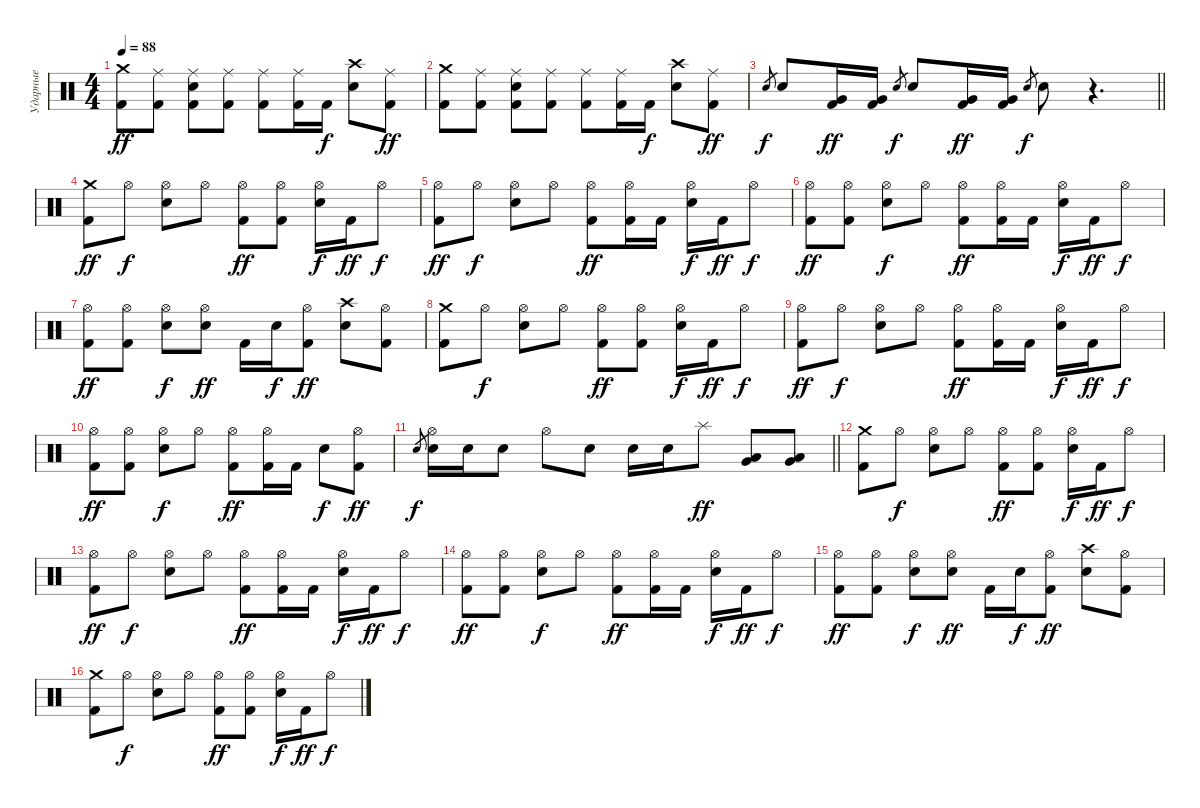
\track ("Ударные" "Ударные") {instrument percussion}
\staff {score}
\articulation defaults
\ts (4 4)
\tempo 88
\clef neutral
\ks c
("Kick (hit) 2" "Crash medium (hit)").8{dy ff} ("Kick (hit) 2" "Ride (middle)").8 ("Kick (hit) 2" "Electric Snare (hit)" "Ride (middle)").8 ("Kick (hit) 2" "Ride (middle)").8 ("Kick (hit) 2" "Ride (middle)").8 ("Kick (hit) 2" "Ride (middle)").16 "Kick (hit) 2".16{dy f} ("Electric Snare (hit)" "Crash high (hit)").8 ("Kick (hit) 2" "Ride (middle)").8{dy ff} |
("Kick (hit) 2" "Crash medium (hit)").8 ("Kick (hit) 2" "Ride (middle)").8 ("Kick (hit) 2" "Electric Snare (hit)" "Ride (middle)").8 ("Kick (hit) 2" "Ride (middle)").8 ("Kick (hit) 2" "Ride (middle)").8 ("Kick (hit) 2" "Ride (middle)").16 "Kick (hit) 2".16{dy f} ("Electric Snare (hit)" "Crash high (hit)").8 ("Kick (hit) 2" "Ride (middle)").8{dy ff} |
\barLineRight lightlight "Electric Snare (hit)".8{gr dy f} "Electric Snare (hit)".8
("Kick (hit) 2" "Very Low Tom (hit)").16{dy ff} ("Kick (hit) 2" "Very Low Tom (hit)").16 "Electric Snare (hit)".8{gr dy f} "Electric Snare (hit)".8 ("Kick (hit) 2" "Very Low Tom (hit)").16{dy ff} ("Kick (hit) 2" "Very Low Tom (hit)").16 "Electric Snare (hit)".8{gr dy f} "Electric Snare (hit)".8 r.4{d} |
("Kick (hit) 2" "Crash medium (hit)").8{dy ff} "Hi-Hat (open)".8{dy f} ("Electric Snare (hit)" "Hi-Hat (open)").8 "Hi-Hat (open)".8 ("Kick (hit) 2" "Hi-Hat (open)").8{dy ff} ("Kick (hit) 2" "Hi-Hat (open)").8 ("Electric Snare (hit)" "Hi-Hat (open)").16{dy f} "Kick (hit) 2".16{dy ff} "Hi-Hat (open)".8{dy f} |
("Kick (hit) 2" "Hi-Hat (open)").8{dy ff} "Hi-Hat (open)".8{dy f} ("Electric Snare (hit)" "Hi-Hat (open)").8 "Hi-Hat (open)".8 ("Kick (hit) 2" "Hi-Hat (open)").8{dy ff} ("Kick (hit) 2" "Hi-Hat (open)").16 "Kick (hit) 2".16 ("Electric Snare (hit)" "Hi-Hat (open)").16{dy f} "Kick (hit) 2".16{dy ff} "Hi-Hat (open)".8{dy f} |
("Kick (hit) 2" "Hi-Hat (open)").8{dy ff} ("Kick (hit) 2" "Hi-Hat (open)").8 ("Electric Snare (hit)" "Hi-Hat (open)").8{dy f} "Hi-Hat (open)".8 ("Kick (hit) 2" "Hi-Hat (open)").8{dy ff} ("Kick (hit) 2" "Hi-Hat (open)").16 "Kick (hit) 2".16 ("Electric Snare (hit)" "Hi-Hat (open)").16{dy f} "Kick (hit) 2".16{dy ff} "Hi-Hat (open)".8{dy f} |
("Kick (hit) 2" "Hi-Hat (open)").8{dy ff} ("Kick (hit) 2" "Hi-Hat (open)").8 ("Electric Snare (hit)" "Hi-Hat (open)").8{dy f} ("Electric Snare (hit)" "Hi-Hat (open)").8{dy ff} "Kick (hit) 2".16 "Electric Snare (hit)".16{dy f} ("Kick (hit) 2" "Hi-Hat (open)").8{dy ff} ("Electric Snare (hit)" "Crash high (hit)").8 ("Kick (hit) 2" "Hi-Hat (open)").8 |
("Kick (hit) 2" "Crash medium (hit)").8 "Hi-Hat (open)".8{dy f} ("Electric Snare (hit)" "Hi-Hat (open)").8 "Hi-Hat (open)".8 ("Kick (hit) 2" "Hi-Hat (open)").8{dy ff} ("Kick (hit) 2" "Hi-Hat (open)").8 ("Electric Snare (hit)" "Hi-Hat (open)").16{dy f} "Kick (hit) 2".16{dy ff} "Hi-Hat (open)".8{dy f} |
("Kick (hit) 2" "Hi-Hat (open)").8{dy ff} "Hi-Hat (open)".8{dy f} ("Electric Snare (hit)" "Hi-Hat (open)").8 "Hi-Hat (open)".8 ("Kick (hit) 2" "Hi-Hat (open)").8{dy ff} ("Kick (hit) 2" "Hi-Hat (open)").16 "Kick (hit) 2".16 ("Electric Snare (hit)" "Hi-Hat (open)").16{dy f} "Kick (hit) 2".16{dy ff} "Hi-Hat (open)".8{dy f} |
("Kick (hit) 2" "Hi-Hat (open)").8{dy ff} ("Kick (hit) 2" "Hi-Hat (open)").8 ("Electric Snare (hit)" "Hi-Hat (open)").8{dy f} "Hi-Hat (open)".8 ("Kick (hit) 2" "Hi-Hat (open)").8{dy ff} ("Kick (hit) 2" "Hi-Hat (open)").16 "Kick (hit) 2".16 "Electric Snare (hit)".8{dy f} ("Kick (hit) 2" "Hi-Hat (open)").8{dy ff} |
\barLineRight lightlight "Electric Snare (hit)".8{gr dy f}
("Electric Snare (hit)" "Hi-Hat (open)").16 "Electric Snare (hit)".16 "Electric Snare (hit)".8 "Hi-Hat (open)".8 "Electric Snare (hit)".8 "Electric Snare (hit)".16 "Electric Snare (hit)".16 "Splash (hit)".8{dy ff} ("Very Low Tom (hit)" "Low Tom (hit)").8 ("Very Low Tom (hit)" "Low Tom (hit)").8 |
("Kick (hit) 2" "Crash medium (hit)").8 "Hi-Hat (open)".8{dy f} ("Electric Snare (hit)" "Hi-Hat (open)").8 "Hi-Hat (open)".8 ("Kick (hit) 2" "Hi-Hat (open)").8{dy ff} ("Kick (hit) 2" "Hi-Hat (open)").8 ("Electric Snare (hit)" "Hi-Hat (open)").16{dy f} "Kick (hit) 2".16{dy ff} "Hi-Hat (open)".8{dy f} |
("Kick (hit) 2" "Hi-Hat (open)").8{dy ff} "Hi-Hat (open)".8{dy f} ("Electric Snare (hit)" "Hi-Hat (open)").8 "Hi-Hat (open)".8 ("Kick (hit) 2" "Hi-Hat (open)").8{dy ff} ("Kick (hit) 2" "Hi-Hat (open)").16 "Kick (hit) 2".16 ("Electric Snare (hit)" "Hi-Hat (open)").16{dy f} "Kick (hit) 2".16{dy ff} "Hi-Hat (open)".8{dy f} |
("Kick (hit) 2" "Hi-Hat (open)").8{dy ff} ("Kick (hit) 2" "Hi-Hat (open)").8 ("Electric Snare (hit)" "Hi-Hat (open)").8{dy f} "Hi-Hat (open)".8 ("Kick (hit) 2" "Hi-Hat (open)").8{dy ff} ("Kick (hit) 2" "Hi-Hat (open)").16 "Kick (hit) 2".16 ("Electric Snare (hit)" "Hi-Hat (open)").16{dy f} "Kick (hit) 2".16{dy ff} "Hi-Hat (open)".8{dy f} |
("Kick (hit) 2" "Hi-Hat (open)").8{dy ff} ("Kick (hit) 2" "Hi-Hat (open)").8 ("Electric Snare (hit)" "Hi-Hat (open)").8{dy f} ("Electric Snare (hit)" "Hi-Hat (open)").8{dy ff} "Kick (hit) 2".16 "Electric Snare (hit)".16{dy f} ("Kick (hit) 2" "Hi-Hat (open)").8{dy ff} ("Electric Snare (hit)" "Crash high (hit)").8 ("Kick (hit) 2" "Hi-Hat (open)").8 |
("Kick (hit) 2" "Crash medium (hit)").8 "Hi-Hat (open)".8{dy f} ("Electric Snare (hit)" "Hi-Hat (open)").8 "Hi-Hat (open)".8 ("Kick (hit) 2" "Hi-Hat (open)").8{dy ff} ("Kick (hit) 2" "Hi-Hat (open)").8 ("Electric Snare (hit)" "Hi-Hat (open)").16{dy f} "Kick (hit) 2".16{dy ff} "Hi-Hat (open)".8{dy f}
